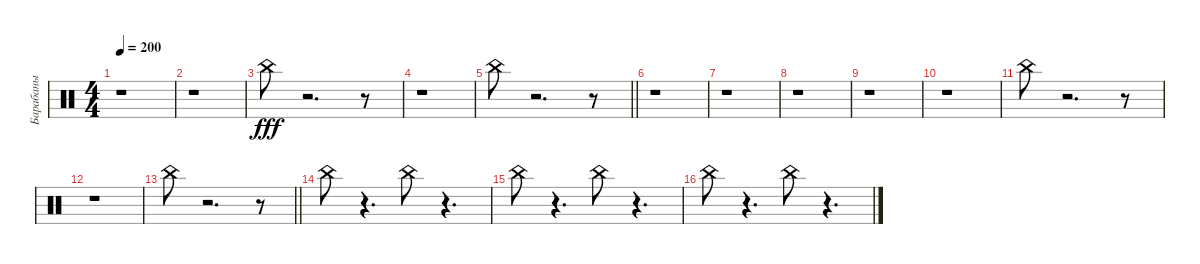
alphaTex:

\track ("Барабаны" "Барабаны") {instrument percussion}
\staff {score}
\articulation defaults
\ts (4 4)
\tempo 200
\clef neutral
\ks c
r.1{dy fff} |
r.1 |
"China (hit)".8 r.2{d} r.8 |
r.1 |
\barLineRight lightlight "China (hit)".8
r.2{d} r.8 |
r.1 |
r.1 |
r.1 |
r.1 |
r.1 |
"China (hit)".8 r.2{d} r.8 |
r.1 |
\barLineRight lightlight "China (hit)".8
r.2{d} r.8 |
\section ("" " ")
"China (hit)".8 r.4{d} "China (hit)".8 r.4{d} |
"China (hit)".8 r.4{d} "China (hit)".8 r.4{d} |
"China (hit)".8 r.4{d} "China (hit)".8 r.4{d}
